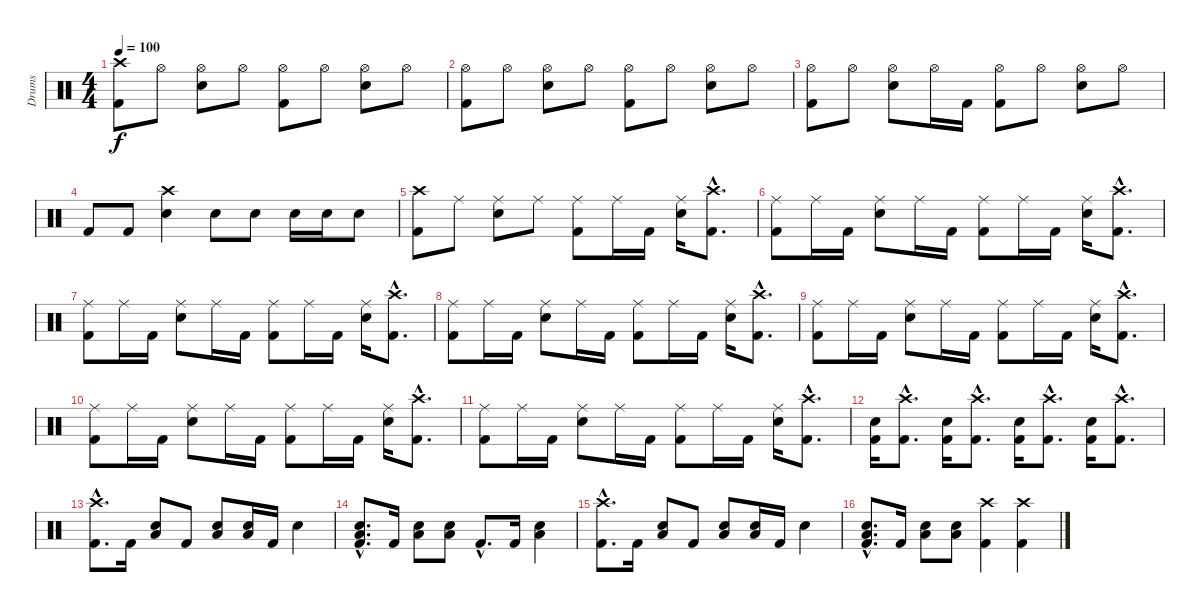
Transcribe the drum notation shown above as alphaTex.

\track ("Drums" "Drums") {instrument percussion}
\staff {score}
\articulation defaults
\ts (4 4)
\tempo 100
\clef neutral
\ks c
("Crash high (hit)" "Kick (hit) 2").8{dy f} "Hi-Hat (open)".8 ("Hi-Hat (open)" "Electric Snare (hit)").8 "Hi-Hat (open)".8 ("Hi-Hat (open)" "Kick (hit) 2").8 "Hi-Hat (open)".8 ("Hi-Hat (open)" "Electric Snare (hit)").8 "Hi-Hat (open)".8 |
("Hi-Hat (open)" "Kick (hit) 2").8 "Hi-Hat (open)".8 ("Hi-Hat (open)" "Electric Snare (hit)").8 "Hi-Hat (open)".8 ("Hi-Hat (open)" "Kick (hit) 2").8 "Hi-Hat (open)".8 ("Hi-Hat (open)" "Electric Snare (hit)").8 "Hi-Hat (open)".8 |
("Hi-Hat (open)" "Kick (hit) 2").8 "Hi-Hat (open)".8 ("Hi-Hat (open)" "Electric Snare (hit)").8 "Hi-Hat (open)".16 "Kick (hit) 2".16 ("Hi-Hat (open)" "Kick (hit) 2").8 "Hi-Hat (open)".8 ("Hi-Hat (open)" "Electric Snare (hit)").8 "Hi-Hat (open)".8 |
"Kick (hit) 2".8 "Kick (hit) 2".8 ("Crash high (hit)" "Electric Snare (hit)").4 "Electric Snare (hit)".8 "Electric Snare (hit)".8 "Electric Snare (hit)".16 "Electric Snare (hit)".16 "Electric Snare (hit)".8 |
("Crash high (hit)" "Kick (hit) 2").8 "Ride (middle)".8 ("Ride (middle)" "Electric Snare (hit)").8 "Ride (middle)".8 ("Ride (middle)" "Kick (hit) 2").8 "Ride (middle)".16 "Kick (hit) 2".16 ("Ride (middle)" "Electric Snare (hit)").16 ("Crash high (hit)"{hac} "Kick (hit) 2"{hac}).8{d} |
("Ride (middle)" "Kick (hit) 2").8 "Ride (middle)".16 "Kick (hit) 2".16 ("Ride (middle)" "Electric Snare (hit)").8 "Ride (middle)".16 "Kick (hit) 2".16 ("Ride (middle)" "Kick (hit) 2").8 "Ride (middle)".16 "Kick (hit) 2".16 ("Ride (middle)" "Electric Snare (hit)").16 ("Crash high (hit)"{hac} "Kick (hit) 2"{hac}).8{d} |
("Ride (middle)" "Kick (hit) 2").8 "Ride (middle)".16 "Kick (hit) 2".16 ("Ride (middle)" "Electric Snare (hit)").8 "Ride (middle)".16 "Kick (hit) 2".16 ("Ride (middle)" "Kick (hit) 2").8 "Ride (middle)".16 "Kick (hit) 2".16 ("Ride (middle)" "Electric Snare (hit)").16 ("Crash high (hit)"{hac} "Kick (hit) 2"{hac}).8{d} |
("Ride (middle)" "Kick (hit) 2").8 "Ride (middle)".16 "Kick (hit) 2".16 ("Ride (middle)" "Electric Snare (hit)").8 "Ride (middle)".16 "Kick (hit) 2".16 ("Ride (middle)" "Kick (hit) 2").8 "Ride (middle)".16 "Kick (hit) 2".16 ("Ride (middle)" "Electric Snare (hit)").16 ("Crash high (hit)"{hac} "Kick (hit) 2"{hac}).8{d} |
("Ride (middle)" "Kick (hit) 2").8 "Ride (middle)".16 "Kick (hit) 2".16 ("Ride (middle)" "Electric Snare (hit)").8 "Ride (middle)".16 "Kick (hit) 2".16 ("Ride (middle)" "Kick (hit) 2").8 "Ride (middle)".16 "Kick (hit) 2".16 ("Ride (middle)" "Electric Snare (hit)").16 ("Crash high (hit)"{hac} "Kick (hit) 2"{hac}).8{d} |
("Ride (middle)" "Kick (hit) 2").8 "Ride (middle)".16 "Kick (hit) 2".16 ("Ride (middle)" "Electric Snare (hit)").8 "Ride (middle)".16 "Kick (hit) 2".16 ("Ride (middle)" "Kick (hit) 2").8 "Ride (middle)".16 "Kick (hit) 2".16 ("Ride (middle)" "Electric Snare (hit)").16 ("Crash high (hit)"{hac} "Kick (hit) 2"{hac}).8{d} |
("Ride (middle)" "Kick (hit) 2").8 "Ride (middle)".16 "Kick (hit) 2".16 ("Ride (middle)" "Electric Snare (hit)").8 "Ride (middle)".16 "Kick (hit) 2".16 ("Ride (middle)" "Kick (hit) 2").8 "Ride (middle)".16 "Kick (hit) 2".16 ("Ride (middle)" "Electric Snare (hit)").16 ("Crash high (hit)"{hac} "Kick (hit) 2"{hac}).8{d} |
("Electric Snare (hit)" "Kick (hit) 2").16 ("Crash high (hit)"{hac} "Kick (hit) 2"{hac}).8{d} ("Electric Snare (hit)" "Kick (hit) 2").16 ("Crash high (hit)"{hac} "Kick (hit) 2"{hac}).8{d} ("Electric Snare (hit)" "Kick (hit) 2").16 ("Crash high (hit)"{hac} "Kick (hit) 2"{hac}).8{d} ("Electric Snare (hit)" "Kick (hit) 2").16 ("Crash high (hit)"{hac} "Kick (hit) 2"{hac}).8{d} |
("Crash high (hit)"{hac} "Kick (hit) 2"{hac}).8{d} "Kick (hit) 2".16 ("Electric Snare (hit)" "Low Tom (hit)").8 "Kick (hit) 2".8 ("Electric Snare (hit)" "Low Tom (hit)").8 ("Electric Snare (hit)" "Low Tom (hit)").16 "Kick (hit) 2".16 "Electric Snare (hit)".4 |
("Electric Snare (hit)"{hac} "Low Tom (hit)"{hac} "Kick (hit) 2"{hac}).8{d} "Kick (hit) 2".16 ("Electric Snare (hit)" "Low Tom (hit)").8 ("Electric Snare (hit)" "Low Tom (hit)").8 "Kick (hit) 2"{hac}.8{d} "Kick (hit) 2".16 ("Electric Snare (hit)" "Low Tom (hit)").4 |
("Crash high (hit)"{hac} "Kick (hit) 2"{hac}).8{d} "Kick (hit) 2".16 ("Electric Snare (hit)" "Low Tom (hit)").8 "Kick (hit) 2".8 ("Electric Snare (hit)" "Low Tom (hit)").8 ("Electric Snare (hit)" "Low Tom (hit)").16 "Kick (hit) 2".16 "Electric Snare (hit)".4 |
("Electric Snare (hit)"{hac} "Low Tom (hit)"{hac} "Kick (hit) 2"{hac}).8{d} "Kick (hit) 2".16 ("Electric Snare (hit)" "Low Tom (hit)").8 ("Electric Snare (hit)" "Low Tom (hit)").8 ("Crash high (hit)" "Kick (hit) 2").4 ("Crash high (hit)" "Kick (hit) 2").4
